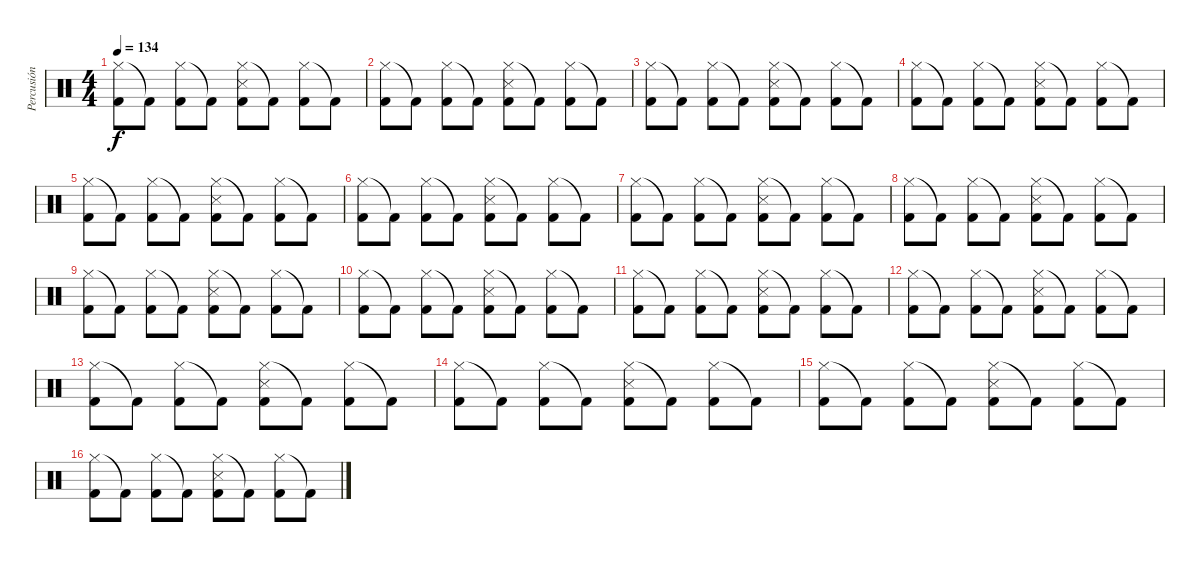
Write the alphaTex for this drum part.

\track ("Percusión" "Percusión") {instrument percussion}
\staff {score}
\articulation defaults
\ts (4 4)
\tempo 134
\clef neutral
\ks c
("Hi-Hat (closed)" "Kick (hit) 2").8{dy f} "Kick (hit) 2"{t}.8 ("Hi-Hat (closed)" "Kick (hit) 2").8 "Kick (hit) 2"{t}.8 ("Hi-Hat (closed)" "Snare (side stick) 3" "Kick (hit) 2").8 "Kick (hit) 2"{t}.8 ("Hi-Hat (closed)" "Kick (hit) 2").8 "Kick (hit) 2"{t}.8 |
("Hi-Hat (closed)" "Kick (hit) 2").8 "Kick (hit) 2"{t}.8 ("Hi-Hat (closed)" "Kick (hit) 2").8 "Kick (hit) 2"{t}.8 ("Hi-Hat (closed)" "Snare (side stick) 3" "Kick (hit) 2").8 "Kick (hit) 2"{t}.8 ("Hi-Hat (closed)" "Kick (hit) 2").8 "Kick (hit) 2"{t}.8 |
("Hi-Hat (closed)" "Kick (hit) 2").8 "Kick (hit) 2"{t}.8 ("Hi-Hat (closed)" "Kick (hit) 2").8 "Kick (hit) 2"{t}.8 ("Hi-Hat (closed)" "Snare (side stick) 3" "Kick (hit) 2").8 "Kick (hit) 2"{t}.8 ("Hi-Hat (closed)" "Kick (hit) 2").8 "Kick (hit) 2"{t}.8 |
("Hi-Hat (closed)" "Kick (hit) 2").8 "Kick (hit) 2"{t}.8 ("Hi-Hat (closed)" "Kick (hit) 2").8 "Kick (hit) 2"{t}.8 ("Hi-Hat (closed)" "Snare (side stick) 3" "Kick (hit) 2").8 "Kick (hit) 2"{t}.8 ("Hi-Hat (closed)" "Kick (hit) 2").8 "Kick (hit) 2"{t}.8 |
("Hi-Hat (closed)" "Kick (hit) 2").8 "Kick (hit) 2"{t}.8 ("Hi-Hat (closed)" "Kick (hit) 2").8 "Kick (hit) 2"{t}.8 ("Hi-Hat (closed)" "Snare (side stick) 3" "Kick (hit) 2").8 "Kick (hit) 2"{t}.8 ("Hi-Hat (closed)" "Kick (hit) 2").8 "Kick (hit) 2"{t}.8 |
("Hi-Hat (closed)" "Kick (hit) 2").8 "Kick (hit) 2"{t}.8 ("Hi-Hat (closed)" "Kick (hit) 2").8 "Kick (hit) 2"{t}.8 ("Hi-Hat (closed)" "Snare (side stick) 3" "Kick (hit) 2").8 "Kick (hit) 2"{t}.8 ("Hi-Hat (closed)" "Kick (hit) 2").8 "Kick (hit) 2"{t}.8 |
("Hi-Hat (closed)" "Kick (hit) 2").8 "Kick (hit) 2"{t}.8 ("Hi-Hat (closed)" "Kick (hit) 2").8 "Kick (hit) 2"{t}.8 ("Hi-Hat (closed)" "Snare (side stick) 3" "Kick (hit) 2").8 "Kick (hit) 2"{t}.8 ("Hi-Hat (closed)" "Kick (hit) 2").8 "Kick (hit) 2"{t}.8 |
("Hi-Hat (closed)" "Kick (hit) 2").8 "Kick (hit) 2"{t}.8 ("Hi-Hat (closed)" "Kick (hit) 2").8 "Kick (hit) 2"{t}.8 ("Hi-Hat (closed)" "Snare (side stick) 3" "Kick (hit) 2").8 "Kick (hit) 2"{t}.8 ("Hi-Hat (closed)" "Kick (hit) 2").8 "Kick (hit) 2"{t}.8 |
("Hi-Hat (closed)" "Kick (hit) 2").8 "Kick (hit) 2"{t}.8 ("Hi-Hat (closed)" "Kick (hit) 2").8 "Kick (hit) 2"{t}.8 ("Hi-Hat (closed)" "Snare (side stick) 3" "Kick (hit) 2").8 "Kick (hit) 2"{t}.8 ("Hi-Hat (closed)" "Kick (hit) 2").8 "Kick (hit) 2"{t}.8 |
("Hi-Hat (closed)" "Kick (hit) 2").8 "Kick (hit) 2"{t}.8 ("Hi-Hat (closed)" "Kick (hit) 2").8 "Kick (hit) 2"{t}.8 ("Hi-Hat (closed)" "Snare (side stick) 3" "Kick (hit) 2").8 "Kick (hit) 2"{t}.8 ("Hi-Hat (closed)" "Kick (hit) 2").8 "Kick (hit) 2"{t}.8 |
("Hi-Hat (closed)" "Kick (hit) 2").8 "Kick (hit) 2"{t}.8 ("Hi-Hat (closed)" "Kick (hit) 2").8 "Kick (hit) 2"{t}.8 ("Hi-Hat (closed)" "Snare (side stick) 3" "Kick (hit) 2").8 "Kick (hit) 2"{t}.8 ("Hi-Hat (closed)" "Kick (hit) 2").8 "Kick (hit) 2"{t}.8 |
("Hi-Hat (closed)" "Kick (hit) 2").8 "Kick (hit) 2"{t}.8 ("Hi-Hat (closed)" "Kick (hit) 2").8 "Kick (hit) 2"{t}.8 ("Hi-Hat (closed)" "Snare (side stick) 3" "Kick (hit) 2").8 "Kick (hit) 2"{t}.8 ("Hi-Hat (closed)" "Kick (hit) 2").8 "Kick (hit) 2"{t}.8 |
("Hi-Hat (closed)" "Kick (hit) 2").8 "Kick (hit) 2"{t}.8 ("Hi-Hat (closed)" "Kick (hit) 2").8 "Kick (hit) 2"{t}.8 ("Hi-Hat (closed)" "Snare (side stick) 3" "Kick (hit) 2").8 "Kick (hit) 2"{t}.8 ("Hi-Hat (closed)" "Kick (hit) 2").8 "Kick (hit) 2"{t}.8 |
("Hi-Hat (closed)" "Kick (hit) 2").8 "Kick (hit) 2"{t}.8 ("Hi-Hat (closed)" "Kick (hit) 2").8 "Kick (hit) 2"{t}.8 ("Hi-Hat (closed)" "Snare (side stick) 3" "Kick (hit) 2").8 "Kick (hit) 2"{t}.8 ("Hi-Hat (closed)" "Kick (hit) 2").8 "Kick (hit) 2"{t}.8 |
("Hi-Hat (closed)" "Kick (hit) 2").8 "Kick (hit) 2"{t}.8 ("Hi-Hat (closed)" "Kick (hit) 2").8 "Kick (hit) 2"{t}.8 ("Hi-Hat (closed)" "Snare (side stick) 3" "Kick (hit) 2").8 "Kick (hit) 2"{t}.8 ("Hi-Hat (closed)" "Kick (hit) 2").8 "Kick (hit) 2"{t}.8 |
("Hi-Hat (closed)" "Kick (hit) 2").8 "Kick (hit) 2"{t}.8 ("Hi-Hat (closed)" "Kick (hit) 2").8 "Kick (hit) 2"{t}.8 ("Hi-Hat (closed)" "Snare (side stick) 3" "Kick (hit) 2").8 "Kick (hit) 2"{t}.8 ("Hi-Hat (closed)" "Kick (hit) 2").8 "Kick (hit) 2"{t}.8
